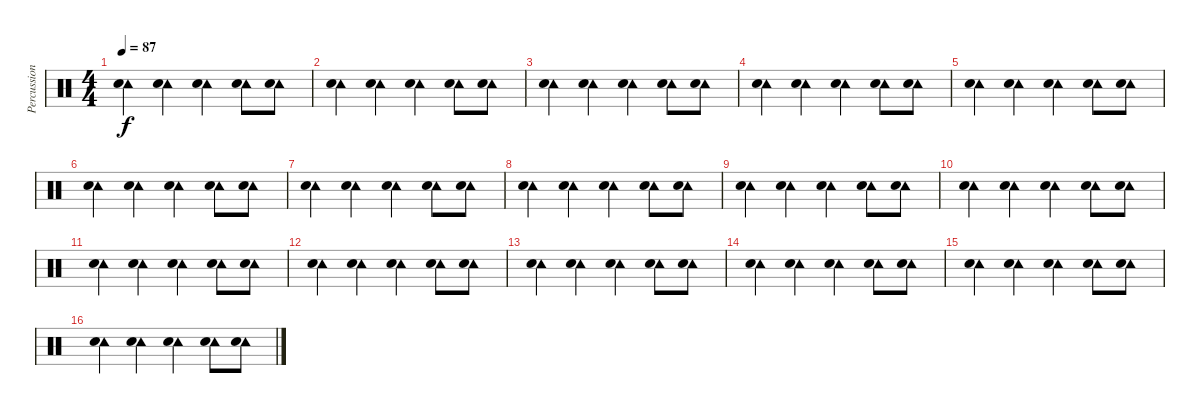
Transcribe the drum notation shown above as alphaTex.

\track ("Percussion" "Percussion") {instrument percussion}
\staff {score}
\articulation defaults
\ts (4 4)
\tempo 87
\clef neutral
\ks c
("Tambourine (hit)" "Snare (hit) 2").4{dy f} ("Tambourine (hit)" "Snare (hit) 2").4 ("Tambourine (hit)" "Snare (hit) 2").4 ("Tambourine (hit)" "Snare (hit) 2").8 ("Tambourine (hit)" "Snare (hit) 2").8 |
("Tambourine (hit)" "Snare (hit) 2").4 ("Tambourine (hit)" "Snare (hit) 2").4 ("Tambourine (hit)" "Snare (hit) 2").4 ("Tambourine (hit)" "Snare (hit) 2").8 ("Tambourine (hit)" "Snare (hit) 2").8 |
("Tambourine (hit)" "Snare (hit) 2").4 ("Tambourine (hit)" "Snare (hit) 2").4 ("Tambourine (hit)" "Snare (hit) 2").4 ("Tambourine (hit)" "Snare (hit) 2").8 ("Tambourine (hit)" "Snare (hit) 2").8 |
("Tambourine (hit)" "Snare (hit) 2").4 ("Tambourine (hit)" "Snare (hit) 2").4 ("Tambourine (hit)" "Snare (hit) 2").4 ("Tambourine (hit)" "Snare (hit) 2").8 ("Tambourine (hit)" "Snare (hit) 2").8 |
("Tambourine (hit)" "Snare (hit) 2").4 ("Tambourine (hit)" "Snare (hit) 2").4 ("Tambourine (hit)" "Snare (hit) 2").4 ("Tambourine (hit)" "Snare (hit) 2").8 ("Tambourine (hit)" "Snare (hit) 2").8 |
("Tambourine (hit)" "Snare (hit) 2").4 ("Tambourine (hit)" "Snare (hit) 2").4 ("Tambourine (hit)" "Snare (hit) 2").4 ("Tambourine (hit)" "Snare (hit) 2").8 ("Tambourine (hit)" "Snare (hit) 2").8 |
("Tambourine (hit)" "Snare (hit) 2").4 ("Tambourine (hit)" "Snare (hit) 2").4 ("Tambourine (hit)" "Snare (hit) 2").4 ("Tambourine (hit)" "Snare (hit) 2").8 ("Tambourine (hit)" "Snare (hit) 2").8 |
("Tambourine (hit)" "Snare (hit) 2").4 ("Tambourine (hit)" "Snare (hit) 2").4 ("Tambourine (hit)" "Snare (hit) 2").4 ("Tambourine (hit)" "Snare (hit) 2").8 ("Tambourine (hit)" "Snare (hit) 2").8 |
("Tambourine (hit)" "Snare (hit) 2").4 ("Tambourine (hit)" "Snare (hit) 2").4 ("Tambourine (hit)" "Snare (hit) 2").4 ("Tambourine (hit)" "Snare (hit) 2").8 ("Tambourine (hit)" "Snare (hit) 2").8 |
("Tambourine (hit)" "Snare (hit) 2").4 ("Tambourine (hit)" "Snare (hit) 2").4 ("Tambourine (hit)" "Snare (hit) 2").4 ("Tambourine (hit)" "Snare (hit) 2").8 ("Tambourine (hit)" "Snare (hit) 2").8 |
("Tambourine (hit)" "Snare (hit) 2").4 ("Tambourine (hit)" "Snare (hit) 2").4 ("Tambourine (hit)" "Snare (hit) 2").4 ("Tambourine (hit)" "Snare (hit) 2").8 ("Tambourine (hit)" "Snare (hit) 2").8 |
("Tambourine (hit)" "Snare (hit) 2").4 ("Tambourine (hit)" "Snare (hit) 2").4 ("Tambourine (hit)" "Snare (hit) 2").4 ("Tambourine (hit)" "Snare (hit) 2").8 ("Tambourine (hit)" "Snare (hit) 2").8 |
("Tambourine (hit)" "Snare (hit) 2").4 ("Tambourine (hit)" "Snare (hit) 2").4 ("Tambourine (hit)" "Snare (hit) 2").4 ("Tambourine (hit)" "Snare (hit) 2").8 ("Tambourine (hit)" "Snare (hit) 2").8 |
("Tambourine (hit)" "Snare (hit) 2").4 ("Tambourine (hit)" "Snare (hit) 2").4 ("Tambourine (hit)" "Snare (hit) 2").4 ("Tambourine (hit)" "Snare (hit) 2").8 ("Tambourine (hit)" "Snare (hit) 2").8 |
("Tambourine (hit)" "Snare (hit) 2").4 ("Tambourine (hit)" "Snare (hit) 2").4 ("Tambourine (hit)" "Snare (hit) 2").4 ("Tambourine (hit)" "Snare (hit) 2").8 ("Tambourine (hit)" "Snare (hit) 2").8 |
("Tambourine (hit)" "Snare (hit) 2").4 ("Tambourine (hit)" "Snare (hit) 2").4 ("Tambourine (hit)" "Snare (hit) 2").4 ("Tambourine (hit)" "Snare (hit) 2").8 ("Tambourine (hit)" "Snare (hit) 2").8
